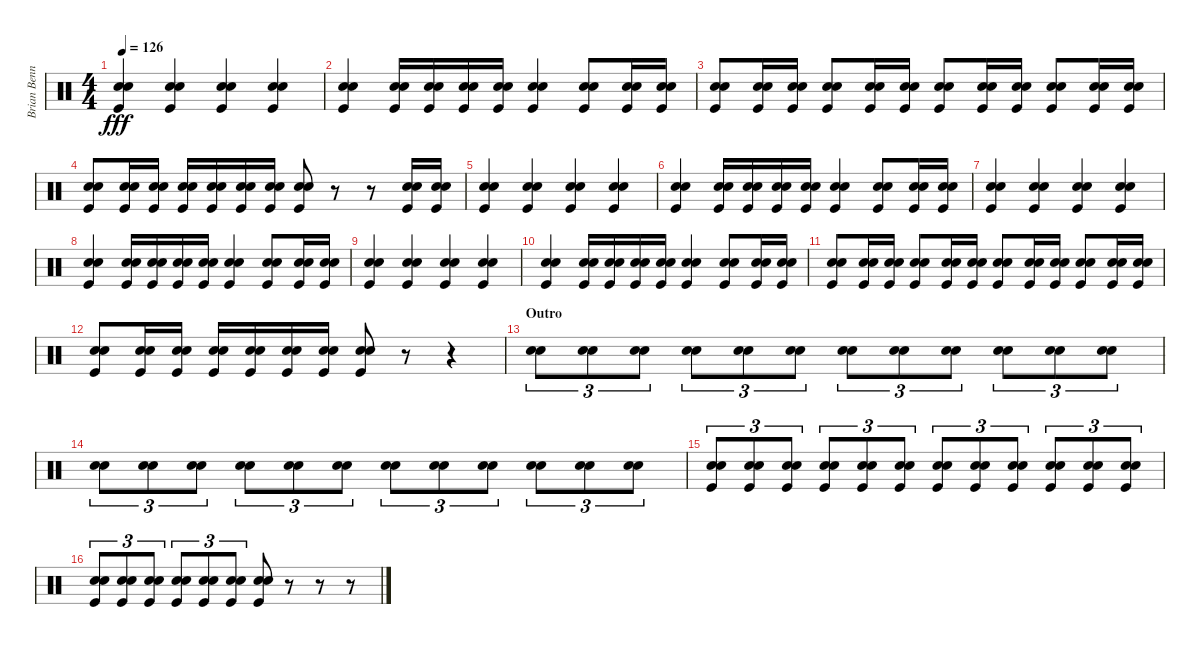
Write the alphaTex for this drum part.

\track ("Brian Bennett" "Brian Benn") {instrument percussion}
\staff {score}
\articulation defaults
\ts (4 4)
\tempo 126
\clef neutral
\ks c
("Electric Snare (hit)" "Snare (hit) 2" "Kick (hit)").4{dy fff} ("Electric Snare (hit)" "Snare (hit) 2" "Kick (hit)").4 ("Electric Snare (hit)" "Snare (hit) 2" "Kick (hit)").4 ("Electric Snare (hit)" "Snare (hit) 2" "Kick (hit)").4 |
("Electric Snare (hit)" "Snare (hit) 2" "Kick (hit)").4 ("Electric Snare (hit)" "Snare (hit) 2" "Kick (hit)").16 ("Electric Snare (hit)" "Snare (hit) 2" "Kick (hit)").16 ("Electric Snare (hit)" "Snare (hit) 2" "Kick (hit)").16 ("Electric Snare (hit)" "Snare (hit) 2" "Kick (hit)").16 ("Electric Snare (hit)" "Snare (hit) 2" "Kick (hit)").4 ("Electric Snare (hit)" "Snare (hit) 2" "Kick (hit)").8 ("Electric Snare (hit)" "Snare (hit) 2" "Kick (hit)").16 ("Electric Snare (hit)" "Snare (hit) 2" "Kick (hit)").16 |
("Electric Snare (hit)" "Snare (hit) 2" "Kick (hit)").8 ("Electric Snare (hit)" "Snare (hit) 2" "Kick (hit)").16 ("Electric Snare (hit)" "Snare (hit) 2" "Kick (hit)").16 ("Electric Snare (hit)" "Snare (hit) 2" "Kick (hit)").8 ("Electric Snare (hit)" "Snare (hit) 2" "Kick (hit)").16 ("Electric Snare (hit)" "Snare (hit) 2" "Kick (hit)").16 ("Electric Snare (hit)" "Snare (hit) 2" "Kick (hit)").8 ("Electric Snare (hit)" "Snare (hit) 2" "Kick (hit)").16 ("Electric Snare (hit)" "Snare (hit) 2" "Kick (hit)").16 ("Electric Snare (hit)" "Snare (hit) 2" "Kick (hit)").8 ("Electric Snare (hit)" "Snare (hit) 2" "Kick (hit)").16 ("Electric Snare (hit)" "Snare (hit) 2" "Kick (hit)").16 |
("Electric Snare (hit)" "Snare (hit) 2" "Kick (hit)").8 ("Electric Snare (hit)" "Snare (hit) 2" "Kick (hit)").16 ("Electric Snare (hit)" "Snare (hit) 2" "Kick (hit)").16 ("Electric Snare (hit)" "Snare (hit) 2" "Kick (hit)").16 ("Electric Snare (hit)" "Snare (hit) 2" "Kick (hit)").16 ("Electric Snare (hit)" "Snare (hit) 2" "Kick (hit)").16 ("Electric Snare (hit)" "Snare (hit) 2" "Kick (hit)").16 ("Electric Snare (hit)" "Snare (hit) 2" "Kick (hit)").8 r.8 r.8 ("Electric Snare (hit)" "Snare (hit) 2" "Kick (hit)").16 ("Electric Snare (hit)" "Snare (hit) 2" "Kick (hit)").16 |
("Electric Snare (hit)" "Snare (hit) 2" "Kick (hit)").4 ("Electric Snare (hit)" "Snare (hit) 2" "Kick (hit)").4 ("Electric Snare (hit)" "Snare (hit) 2" "Kick (hit)").4 ("Electric Snare (hit)" "Snare (hit) 2" "Kick (hit)").4 |
("Electric Snare (hit)" "Snare (hit) 2" "Kick (hit)").4 ("Electric Snare (hit)" "Snare (hit) 2" "Kick (hit)").16 ("Electric Snare (hit)" "Snare (hit) 2" "Kick (hit)").16 ("Electric Snare (hit)" "Snare (hit) 2" "Kick (hit)").16 ("Electric Snare (hit)" "Snare (hit) 2" "Kick (hit)").16 ("Electric Snare (hit)" "Snare (hit) 2" "Kick (hit)").4 ("Electric Snare (hit)" "Snare (hit) 2" "Kick (hit)").8 ("Electric Snare (hit)" "Snare (hit) 2" "Kick (hit)").16 ("Electric Snare (hit)" "Snare (hit) 2" "Kick (hit)").16 |
("Electric Snare (hit)" "Snare (hit) 2" "Kick (hit)").4 ("Electric Snare (hit)" "Snare (hit) 2" "Kick (hit)").4 ("Electric Snare (hit)" "Snare (hit) 2" "Kick (hit)").4 ("Electric Snare (hit)" "Snare (hit) 2" "Kick (hit)").4 |
("Electric Snare (hit)" "Snare (hit) 2" "Kick (hit)").4 ("Electric Snare (hit)" "Snare (hit) 2" "Kick (hit)").16 ("Electric Snare (hit)" "Snare (hit) 2" "Kick (hit)").16 ("Electric Snare (hit)" "Snare (hit) 2" "Kick (hit)").16 ("Electric Snare (hit)" "Snare (hit) 2" "Kick (hit)").16 ("Electric Snare (hit)" "Snare (hit) 2" "Kick (hit)").4 ("Electric Snare (hit)" "Snare (hit) 2" "Kick (hit)").8 ("Electric Snare (hit)" "Snare (hit) 2" "Kick (hit)").16 ("Electric Snare (hit)" "Snare (hit) 2" "Kick (hit)").16 |
("Electric Snare (hit)" "Snare (hit) 2" "Kick (hit)").4 ("Electric Snare (hit)" "Snare (hit) 2" "Kick (hit)").4 ("Electric Snare (hit)" "Snare (hit) 2" "Kick (hit)").4 ("Electric Snare (hit)" "Snare (hit) 2" "Kick (hit)").4 |
("Electric Snare (hit)" "Snare (hit) 2" "Kick (hit)").4 ("Electric Snare (hit)" "Snare (hit) 2" "Kick (hit)").16 ("Electric Snare (hit)" "Snare (hit) 2" "Kick (hit)").16 ("Electric Snare (hit)" "Snare (hit) 2" "Kick (hit)").16 ("Electric Snare (hit)" "Snare (hit) 2" "Kick (hit)").16 ("Electric Snare (hit)" "Snare (hit) 2" "Kick (hit)").4 ("Electric Snare (hit)" "Snare (hit) 2" "Kick (hit)").8 ("Electric Snare (hit)" "Snare (hit) 2" "Kick (hit)").16 ("Electric Snare (hit)" "Snare (hit) 2" "Kick (hit)").16 |
("Electric Snare (hit)" "Snare (hit) 2" "Kick (hit)").8 ("Electric Snare (hit)" "Snare (hit) 2" "Kick (hit)").16 ("Electric Snare (hit)" "Snare (hit) 2" "Kick (hit)").16 ("Electric Snare (hit)" "Snare (hit) 2" "Kick (hit)").8 ("Electric Snare (hit)" "Snare (hit) 2" "Kick (hit)").16 ("Electric Snare (hit)" "Snare (hit) 2" "Kick (hit)").16 ("Electric Snare (hit)" "Snare (hit) 2" "Kick (hit)").8 ("Electric Snare (hit)" "Snare (hit) 2" "Kick (hit)").16 ("Electric Snare (hit)" "Snare (hit) 2" "Kick (hit)").16 ("Electric Snare (hit)" "Snare (hit) 2" "Kick (hit)").8 ("Electric Snare (hit)" "Snare (hit) 2" "Kick (hit)").16 ("Electric Snare (hit)" "Snare (hit) 2" "Kick (hit)").16 |
("Electric Snare (hit)" "Snare (hit) 2" "Kick (hit)").8 ("Electric Snare (hit)" "Snare (hit) 2" "Kick (hit)").16 ("Electric Snare (hit)" "Snare (hit) 2" "Kick (hit)").16 ("Electric Snare (hit)" "Snare (hit) 2" "Kick (hit)").16 ("Electric Snare (hit)" "Snare (hit) 2" "Kick (hit)").16 ("Electric Snare (hit)" "Snare (hit) 2" "Kick (hit)").16 ("Electric Snare (hit)" "Snare (hit) 2" "Kick (hit)").16 ("Electric Snare (hit)" "Snare (hit) 2" "Kick (hit)").8 r.8 r.4 |
\section ("" "Outro")
("Electric Snare (hit)" "Snare (hit) 2").8{tu (3 2)} ("Electric Snare (hit)" "Snare (hit) 2").8{tu (3 2)} ("Electric Snare (hit)" "Snare (hit) 2").8{tu (3 2)} ("Electric Snare (hit)" "Snare (hit) 2").8{tu (3 2)} ("Electric Snare (hit)" "Snare (hit) 2").8{tu (3 2)} ("Electric Snare (hit)" "Snare (hit) 2").8{tu (3 2)} ("Electric Snare (hit)" "Snare (hit) 2").8{tu (3 2)} ("Electric Snare (hit)" "Snare (hit) 2").8{tu (3 2)} ("Electric Snare (hit)" "Snare (hit) 2").8{tu (3 2)} ("Electric Snare (hit)" "Snare (hit) 2").8{tu (3 2)} ("Electric Snare (hit)" "Snare (hit) 2").8{tu (3 2)} ("Electric Snare (hit)" "Snare (hit) 2").8{tu (3 2)} |
("Electric Snare (hit)" "Snare (hit) 2").8{tu (3 2)} ("Electric Snare (hit)" "Snare (hit) 2").8{tu (3 2)} ("Electric Snare (hit)" "Snare (hit) 2").8{tu (3 2)} ("Electric Snare (hit)" "Snare (hit) 2").8{tu (3 2)} ("Electric Snare (hit)" "Snare (hit) 2").8{tu (3 2)} ("Electric Snare (hit)" "Snare (hit) 2").8{tu (3 2)} ("Electric Snare (hit)" "Snare (hit) 2").8{tu (3 2)} ("Electric Snare (hit)" "Snare (hit) 2").8{tu (3 2)} ("Electric Snare (hit)" "Snare (hit) 2").8{tu (3 2)} ("Electric Snare (hit)" "Snare (hit) 2").8{tu (3 2)} ("Electric Snare (hit)" "Snare (hit) 2").8{tu (3 2)} ("Electric Snare (hit)" "Snare (hit) 2").8{tu (3 2)} |
("Electric Snare (hit)" "Snare (hit) 2" "Kick (hit)").8{tu (3 2)} ("Electric Snare (hit)" "Snare (hit) 2" "Kick (hit)").8{tu (3 2)} ("Electric Snare (hit)" "Snare (hit) 2" "Kick (hit)").8{tu (3 2)} ("Electric Snare (hit)" "Snare (hit) 2" "Kick (hit)").8{tu (3 2)} ("Electric Snare (hit)" "Snare (hit) 2" "Kick (hit)").8{tu (3 2)} ("Electric Snare (hit)" "Snare (hit) 2" "Kick (hit)").8{tu (3 2)} ("Electric Snare (hit)" "Snare (hit) 2" "Kick (hit)").8{tu (3 2)} ("Electric Snare (hit)" "Snare (hit) 2" "Kick (hit)").8{tu (3 2)} ("Electric Snare (hit)" "Snare (hit) 2" "Kick (hit)").8{tu (3 2)} ("Electric Snare (hit)" "Snare (hit) 2" "Kick (hit)").8{tu (3 2)} ("Electric Snare (hit)" "Snare (hit) 2" "Kick (hit)").8{tu (3 2)} ("Electric Snare (hit)" "Snare (hit) 2" "Kick (hit)").8{tu (3 2)} |
("Electric Snare (hit)" "Snare (hit) 2" "Kick (hit)").8{tu (3 2)} ("Electric Snare (hit)" "Snare (hit) 2" "Kick (hit)").8{tu (3 2)} ("Electric Snare (hit)" "Snare (hit) 2" "Kick (hit)").8{tu (3 2)} ("Electric Snare (hit)" "Snare (hit) 2" "Kick (hit)").8{tu (3 2)} ("Electric Snare (hit)" "Snare (hit) 2" "Kick (hit)").8{tu (3 2)} ("Electric Snare (hit)" "Snare (hit) 2" "Kick (hit)").8{tu (3 2)} ("Electric Snare (hit)" "Snare (hit) 2" "Kick (hit)").8 r.8 r.8 r.8
